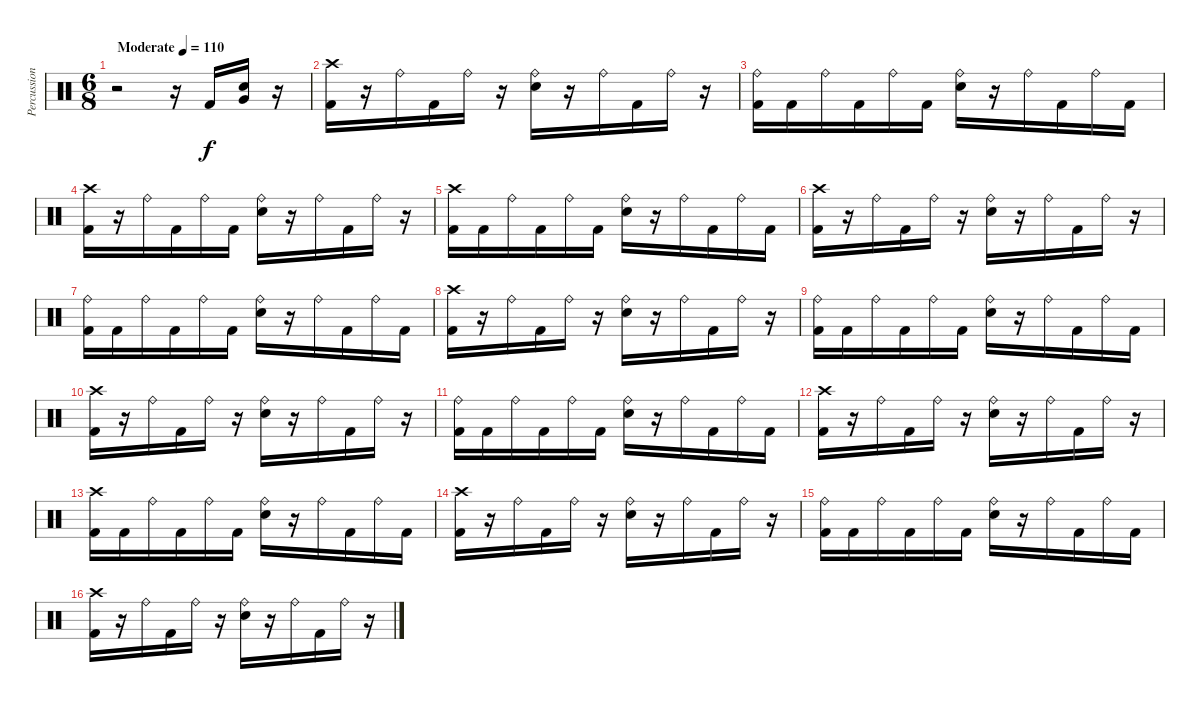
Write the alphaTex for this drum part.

\track ("Percussion" "Percussion") {instrument percussion}
\staff {score}
\articulation defaults
\ts (6 8)
\tempo (110 "Moderate")
\clef neutral
\ks c
r.2{dy f} r.16 "Kick (hit) 2".16 ("Very Low Tom (hit)" "Electric Snare (hit)").16 r.16 |
("Crash high (hit)" "Kick (hit) 2").16 r.16 "Ride (bell)".16 "Kick (hit) 2".16 "Ride (bell)".16 r.16 ("Ride (bell)" "Electric Snare (hit)").16 r.16 "Ride (bell)".16 "Kick (hit) 2".16 "Ride (bell)".16 r.16 |
("Ride (bell)" "Kick (hit) 2").16 "Kick (hit) 2".16 "Ride (bell)".16 "Kick (hit) 2".16 "Ride (bell)".16 "Kick (hit) 2".16 ("Ride (bell)" "Electric Snare (hit)").16 r.16 "Ride (bell)".16 "Kick (hit) 2".16 "Ride (bell)".16 "Kick (hit) 2".16 |
("Crash high (hit)" "Kick (hit) 2").16 r.16 "Ride (bell)".16 "Kick (hit) 2".16 "Ride (bell)".16 "Kick (hit) 2".16 ("Ride (bell)" "Electric Snare (hit)").16 r.16 "Ride (bell)".16 "Kick (hit) 2".16 "Ride (bell)".16 r.16 |
("Crash high (hit)" "Kick (hit) 2").16 "Kick (hit) 2".16 "Ride (bell)".16 "Kick (hit) 2".16 "Ride (bell)".16 "Kick (hit) 2".16 ("Ride (bell)" "Electric Snare (hit)").16 r.16 "Ride (bell)".16 "Kick (hit) 2".16 "Ride (bell)".16 "Kick (hit) 2".16 |
("Crash high (hit)" "Kick (hit) 2").16 r.16 "Ride (bell)".16 "Kick (hit) 2".16 "Ride (bell)".16 r.16 ("Ride (bell)" "Electric Snare (hit)").16 r.16 "Ride (bell)".16 "Kick (hit) 2".16 "Ride (bell)".16 r.16 |
("Ride (bell)" "Kick (hit) 2").16 "Kick (hit) 2".16 "Ride (bell)".16 "Kick (hit) 2".16 "Ride (bell)".16 "Kick (hit) 2".16 ("Ride (bell)" "Electric Snare (hit)").16 r.16 "Ride (bell)".16 "Kick (hit) 2".16 "Ride (bell)".16 "Kick (hit) 2".16 |
("Crash high (hit)" "Kick (hit) 2").16 r.16 "Ride (bell)".16 "Kick (hit) 2".16 "Ride (bell)".16 r.16 ("Ride (bell)" "Electric Snare (hit)").16 r.16 "Ride (bell)".16 "Kick (hit) 2".16 "Ride (bell)".16 r.16 |
("Ride (bell)" "Kick (hit) 2").16 "Kick (hit) 2".16 "Ride (bell)".16 "Kick (hit) 2".16 "Ride (bell)".16 "Kick (hit) 2".16 ("Ride (bell)" "Electric Snare (hit)").16 r.16 "Ride (bell)".16 "Kick (hit) 2".16 "Ride (bell)".16 "Kick (hit) 2".16 |
("Crash high (hit)" "Kick (hit) 2").16 r.16 "Ride (bell)".16 "Kick (hit) 2".16 "Ride (bell)".16 r.16 ("Ride (bell)" "Electric Snare (hit)").16 r.16 "Ride (bell)".16 "Kick (hit) 2".16 "Ride (bell)".16 r.16 |
("Ride (bell)" "Kick (hit) 2").16 "Kick (hit) 2".16 "Ride (bell)".16 "Kick (hit) 2".16 "Ride (bell)".16 "Kick (hit) 2".16 ("Ride (bell)" "Electric Snare (hit)").16 r.16 "Ride (bell)".16 "Kick (hit) 2".16 "Ride (bell)".16 "Kick (hit) 2".16 |
("Crash high (hit)" "Kick (hit) 2").16 r.16 "Ride (bell)".16 "Kick (hit) 2".16 "Ride (bell)".16 r.16 ("Ride (bell)" "Electric Snare (hit)").16 r.16 "Ride (bell)".16 "Kick (hit) 2".16 "Ride (bell)".16 r.16 |
("Crash high (hit)" "Kick (hit) 2").16 "Kick (hit) 2".16 "Ride (bell)".16 "Kick (hit) 2".16 "Ride (bell)".16 "Kick (hit) 2".16 ("Ride (bell)" "Electric Snare (hit)").16 r.16 "Ride (bell)".16 "Kick (hit) 2".16 "Ride (bell)".16 "Kick (hit) 2".16 |
("Crash high (hit)" "Kick (hit) 2").16 r.16 "Ride (bell)".16 "Kick (hit) 2".16 "Ride (bell)".16 r.16 ("Ride (bell)" "Electric Snare (hit)").16 r.16 "Ride (bell)".16 "Kick (hit) 2".16 "Ride (bell)".16 r.16 |
("Ride (bell)" "Kick (hit) 2").16 "Kick (hit) 2".16 "Ride (bell)".16 "Kick (hit) 2".16 "Ride (bell)".16 "Kick (hit) 2".16 ("Ride (bell)" "Electric Snare (hit)").16 r.16 "Ride (bell)".16 "Kick (hit) 2".16 "Ride (bell)".16 "Kick (hit) 2".16 |
("Crash high (hit)" "Kick (hit) 2").16 r.16 "Ride (bell)".16 "Kick (hit) 2".16 "Ride (bell)".16 r.16 ("Ride (bell)" "Electric Snare (hit)").16 r.16 "Ride (bell)".16 "Kick (hit) 2".16 "Ride (bell)".16 r.16
